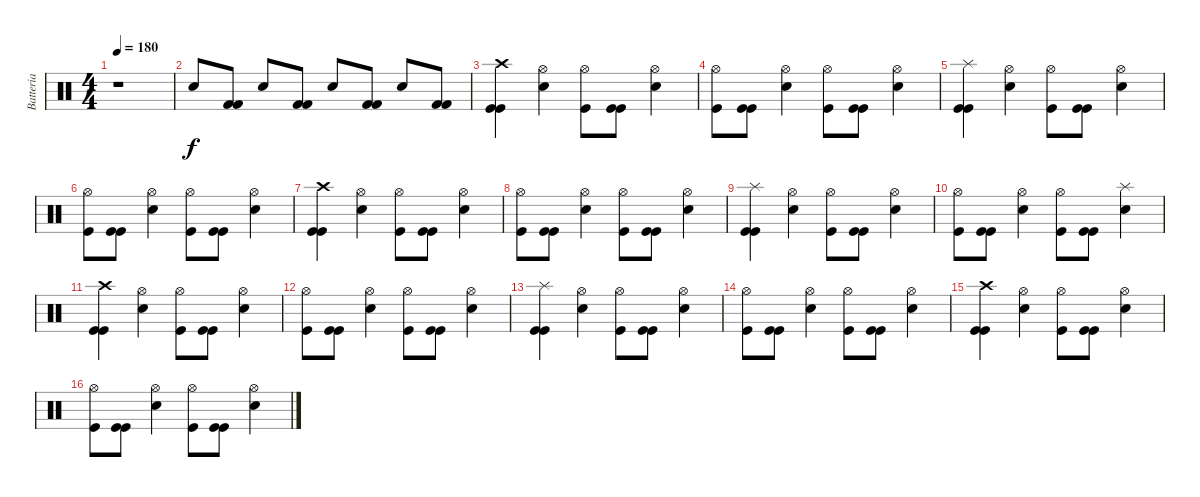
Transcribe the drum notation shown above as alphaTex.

\track ("Batteria" "Batteria") {instrument percussion}
\staff {score}
\articulation defaults
\ts (4 4)
\tempo 180
\clef neutral
\ks c
r.1{dy f} |
"Electric Snare (hit)".8 ("Kick (hit) 2" "Kick (hit) 2").8 "Electric Snare (hit)".8 ("Kick (hit) 2" "Kick (hit) 2").8 "Electric Snare (hit)".8 ("Kick (hit) 2" "Kick (hit) 2").8 "Electric Snare (hit)".8 ("Kick (hit) 2" "Kick (hit) 2").8 |
("Kick (hit)" "Crash high (hit)" "Kick (hit)").4 ("Snare (hit) 2" "Hi-Hat (open)").4 ("Kick (hit)" "Hi-Hat (open)").8 ("Kick (hit)" "Kick (hit)").8 ("Snare (hit) 2" "Hi-Hat (open)").4 |
("Kick (hit)" "Hi-Hat (open)").8 ("Kick (hit)" "Kick (hit)").8 ("Hi-Hat (open)" "Snare (hit) 2").4 ("Kick (hit)" "Hi-Hat (open)").8 ("Kick (hit)" "Kick (hit)").8 ("Hi-Hat (open)" "Snare (hit) 2").4 |
("Kick (hit)" "Kick (hit)" "Splash (hit)").4 ("Snare (hit) 2" "Hi-Hat (open)").4 ("Kick (hit)" "Hi-Hat (open)").8 ("Kick (hit)" "Kick (hit)").8 ("Snare (hit) 2" "Hi-Hat (open)").4 |
("Kick (hit)" "Hi-Hat (open)").8 ("Kick (hit)" "Kick (hit)").8 ("Hi-Hat (open)" "Snare (hit) 2").4 ("Kick (hit)" "Hi-Hat (open)").8 ("Kick (hit)" "Kick (hit)").8 ("Hi-Hat (open)" "Snare (hit) 2").4 |
("Kick (hit)" "Crash high (hit)" "Kick (hit)").4 ("Snare (hit) 2" "Hi-Hat (open)").4 ("Kick (hit)" "Hi-Hat (open)").8 ("Kick (hit)" "Kick (hit)").8 ("Snare (hit) 2" "Hi-Hat (open)").4 |
("Kick (hit)" "Hi-Hat (open)").8 ("Kick (hit)" "Kick (hit)").8 ("Hi-Hat (open)" "Snare (hit) 2").4 ("Kick (hit)" "Hi-Hat (open)").8 ("Kick (hit)" "Kick (hit)").8 ("Hi-Hat (open)" "Snare (hit) 2").4 |
("Kick (hit)" "Kick (hit)" "Splash (hit)").4 ("Snare (hit) 2" "Hi-Hat (open)").4 ("Kick (hit)" "Hi-Hat (open)").8 ("Kick (hit)" "Kick (hit)").8 ("Snare (hit) 2" "Hi-Hat (open)").4 |
("Kick (hit)" "Hi-Hat (open)").8 ("Kick (hit)" "Kick (hit)").8 ("Hi-Hat (open)" "Snare (hit) 2").4 ("Kick (hit)" "Hi-Hat (open)").8 ("Kick (hit)" "Kick (hit)").8 ("Snare (hit) 2" "Splash (hit)").4 |
("Kick (hit)" "Crash high (hit)" "Kick (hit)").4 ("Snare (hit) 2" "Hi-Hat (open)").4 ("Kick (hit)" "Hi-Hat (open)").8 ("Kick (hit)" "Kick (hit)").8 ("Snare (hit) 2" "Hi-Hat (open)").4 |
("Kick (hit)" "Hi-Hat (open)").8 ("Kick (hit)" "Kick (hit)").8 ("Hi-Hat (open)" "Snare (hit) 2").4 ("Kick (hit)" "Hi-Hat (open)").8 ("Kick (hit)" "Kick (hit)").8 ("Hi-Hat (open)" "Snare (hit) 2").4 |
("Kick (hit)" "Kick (hit)" "Splash (hit)").4 ("Snare (hit) 2" "Hi-Hat (open)").4 ("Kick (hit)" "Hi-Hat (open)").8 ("Kick (hit)" "Kick (hit)").8 ("Snare (hit) 2" "Hi-Hat (open)").4 |
("Kick (hit)" "Hi-Hat (open)").8 ("Kick (hit)" "Kick (hit)").8 ("Hi-Hat (open)" "Snare (hit) 2").4 ("Kick (hit)" "Hi-Hat (open)").8 ("Kick (hit)" "Kick (hit)").8 ("Hi-Hat (open)" "Snare (hit) 2").4 |
("Kick (hit)" "Crash high (hit)" "Kick (hit)").4 ("Snare (hit) 2" "Hi-Hat (open)").4 ("Kick (hit)" "Hi-Hat (open)").8 ("Kick (hit)" "Kick (hit)").8 ("Snare (hit) 2" "Hi-Hat (open)").4 |
("Kick (hit)" "Hi-Hat (open)").8 ("Kick (hit)" "Kick (hit)").8 ("Hi-Hat (open)" "Snare (hit) 2").4 ("Kick (hit)" "Hi-Hat (open)").8 ("Kick (hit)" "Kick (hit)").8 ("Hi-Hat (open)" "Snare (hit) 2").4
